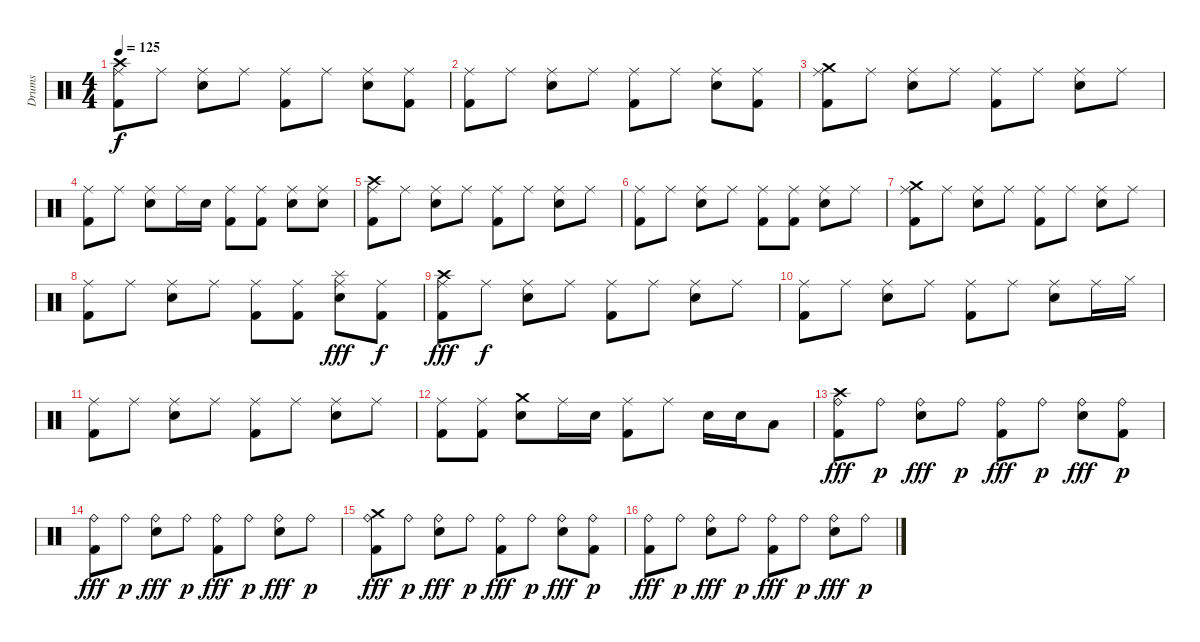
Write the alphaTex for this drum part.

\track ("Drums" "Drums") {instrument percussion}
\staff {score}
\articulation defaults
\ts (4 4)
\tempo 125
\clef neutral
\ks c
("Crash high (hit)" "Ride (middle)" "Kick (hit) 2").8{dy f} "Ride (middle)".8 ("Ride (middle)" "Electric Snare (hit)").8 "Ride (middle)".8 ("Ride (middle)" "Kick (hit) 2").8 "Ride (middle)".8 ("Ride (middle)" "Electric Snare (hit)").8 ("Ride (middle)" "Kick (hit) 2").8 |
("Ride (middle)" "Kick (hit) 2").8 "Ride (middle)".8 ("Ride (middle)" "Electric Snare (hit)").8 "Ride (middle)".8 ("Ride (middle)" "Kick (hit) 2").8 "Ride (middle)".8 ("Ride (middle)" "Electric Snare (hit)").8 ("Ride (middle)" "Kick (hit) 2").8 |
("Crash medium (hit)" "Ride (middle)" "Kick (hit) 2").8 "Ride (middle)".8 ("Ride (middle)" "Electric Snare (hit)").8 "Ride (middle)".8 ("Ride (middle)" "Kick (hit) 2").8 "Ride (middle)".8 ("Ride (middle)" "Electric Snare (hit)").8 "Ride (middle)".8 |
("Ride (middle)" "Kick (hit) 2").8 "Ride (middle)".8 ("Ride (middle)" "Electric Snare (hit)").8 "Ride (middle)".16 "Electric Snare (hit)".16 ("Ride (middle)" "Kick (hit) 2").8 ("Ride (middle)" "Kick (hit) 2").8 ("Ride (middle)" "Electric Snare (hit)").8 ("Ride (middle)" "Electric Snare (hit)").8 |
("Crash high (hit)" "Ride (middle)" "Kick (hit) 2").8 "Ride (middle)".8 ("Ride (middle)" "Electric Snare (hit)").8 "Ride (middle)".8 ("Ride (middle)" "Kick (hit) 2").8 "Ride (middle)".8 ("Ride (middle)" "Electric Snare (hit)").8 "Ride (middle)".8 |
("Ride (middle)" "Kick (hit) 2").8 "Ride (middle)".8 ("Ride (middle)" "Electric Snare (hit)").8 "Ride (middle)".8 ("Ride (middle)" "Kick (hit) 2").8 ("Ride (middle)" "Kick (hit) 2").8 ("Ride (middle)" "Electric Snare (hit)").8 "Ride (middle)".8 |
("Crash medium (hit)" "Ride (middle)" "Kick (hit) 2").8 "Ride (middle)".8 ("Ride (middle)" "Electric Snare (hit)").8 "Ride (middle)".8 ("Ride (middle)" "Kick (hit) 2").8 "Ride (middle)".8 ("Ride (middle)" "Electric Snare (hit)").8 "Ride (middle)".8 |
("Ride (middle)" "Kick (hit) 2").8 "Ride (middle)".8 ("Ride (middle)" "Electric Snare (hit)").8 "Ride (middle)".8 ("Ride (middle)" "Kick (hit) 2").8 ("Ride (middle)" "Kick (hit) 2").8 ("Splash (hit)" "Ride (middle)" "Electric Snare (hit)").8{dy fff} ("Ride (middle)" "Kick (hit) 2").8{dy f} |
("Crash high (hit)" "Ride (middle)" "Kick (hit) 2").8{dy fff} "Ride (middle)".8{dy f} ("Ride (middle)" "Electric Snare (hit)").8 "Ride (middle)".8 ("Ride (middle)" "Kick (hit) 2").8 "Ride (middle)".8 ("Ride (middle)" "Electric Snare (hit)").8 "Ride (middle)".8 |
("Ride (middle)" "Kick (hit) 2").8 "Ride (middle)".8 ("Ride (middle)" "Electric Snare (hit)").8 "Ride (middle)".8 ("Ride (middle)" "Kick (hit) 2").8 "Ride (middle)".8 ("Ride (middle)" "Electric Snare (hit)").8 "Ride (middle)".16 "Hi-Hat (closed)".16 |
("Ride (middle)" "Kick (hit) 2").8 "Ride (middle)".8 ("Ride (middle)" "Electric Snare (hit)").8 "Ride (middle)".8 ("Ride (middle)" "Kick (hit) 2").8 "Ride (middle)".8 ("Ride (middle)" "Electric Snare (hit)").8 "Ride (middle)".8 |
("Ride (middle)" "Kick (hit) 2").8 ("Ride (middle)" "Kick (hit) 2").8 ("Crash medium (hit)" "Electric Snare (hit)").8 "Ride (middle)".16 "Electric Snare (hit)".16 ("Ride (middle)" "Kick (hit) 2").8 "Ride (middle)".8 "Electric Snare (hit)".16 "Electric Snare (hit)".16 "Low Tom (hit)".8 |
("Crash high (hit)" "Ride (bell)" "Kick (hit) 2").8{dy fff} "Ride (bell)".8{dy p} ("Ride (bell)" "Electric Snare (hit)").8{dy fff} "Ride (bell)".8{dy p} ("Ride (bell)" "Kick (hit) 2").8{dy fff} "Ride (bell)".8{dy p} ("Ride (bell)" "Electric Snare (hit)").8{dy fff} ("Ride (bell)" "Kick (hit) 2").8{dy p} |
("Ride (bell)" "Kick (hit) 2").8{dy fff} "Ride (bell)".8{dy p} ("Ride (bell)" "Electric Snare (hit)").8{dy fff} "Ride (bell)".8{dy p} ("Ride (bell)" "Kick (hit) 2").8{dy fff} "Ride (bell)".8{dy p} ("Ride (bell)" "Electric Snare (hit)").8{dy fff} "Ride (bell)".8{dy p} |
("Crash medium (hit)" "Ride (bell)" "Kick (hit) 2").8{dy fff} "Ride (bell)".8{dy p} ("Ride (bell)" "Electric Snare (hit)").8{dy fff} "Ride (bell)".8{dy p} ("Ride (bell)" "Kick (hit) 2").8{dy fff} "Ride (bell)".8{dy p} ("Ride (bell)" "Electric Snare (hit)").8{dy fff} ("Ride (bell)" "Kick (hit) 2").8{dy p} |
("Ride (bell)" "Kick (hit) 2").8{dy fff} "Ride (bell)".8{dy p} ("Ride (bell)" "Electric Snare (hit)").8{dy fff} "Ride (bell)".8{dy p} ("Ride (bell)" "Kick (hit) 2").8{dy fff} "Ride (bell)".8{dy p} ("Ride (bell)" "Electric Snare (hit)").8{dy fff} "Ride (bell)".8{dy p}
